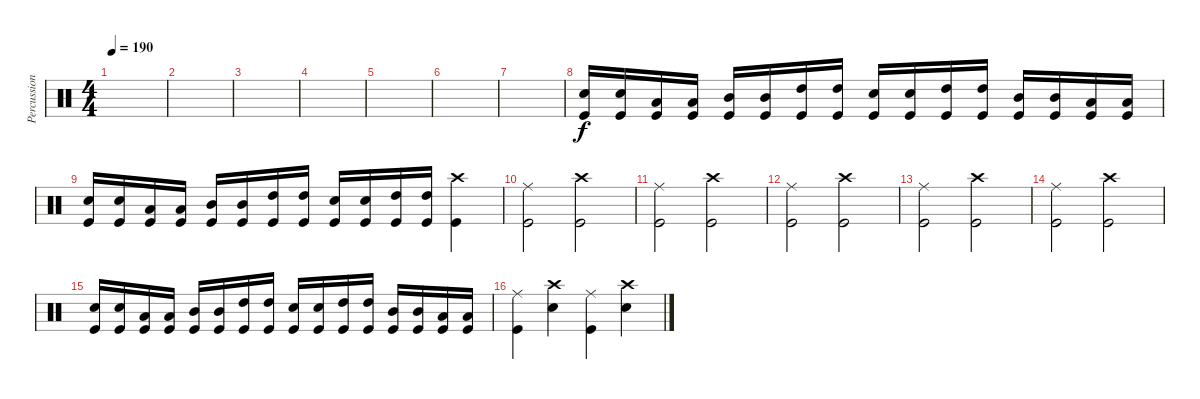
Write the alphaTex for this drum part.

\track ("Percussioni" "Percussion") {instrument percussion}
\staff {score}
\articulation defaults
\ts (4 4)
\tempo 190
\clef neutral
\ks c
|
|
|
|
|
|
|
("Electric Snare (hit)" "Kick (hit)").16 ("Electric Snare (hit)" "Kick (hit)").16 ("Low Tom (hit)" "Kick (hit)").16 ("Low Tom (hit)" "Kick (hit)").16 ("Mid Tom (hit)" "Kick (hit)").16 ("Mid Tom (hit)" "Kick (hit)").16 ("High Tom (hit)" "Kick (hit)").16 ("High Tom (hit)" "Kick (hit)").16 ("Electric Snare (hit)" "Kick (hit)").16 ("Electric Snare (hit)" "Kick (hit)").16 ("High Tom (hit)" "Kick (hit)").16 ("High Tom (hit)" "Kick (hit)").16 ("Mid Tom (hit)" "Kick (hit)").16 ("Mid Tom (hit)" "Kick (hit)").16 ("Low Tom (hit)" "Kick (hit)").16 ("Low Tom (hit)" "Kick (hit)").16 |
("Electric Snare (hit)" "Kick (hit)").16 ("Electric Snare (hit)" "Kick (hit)").16 ("Low Tom (hit)" "Kick (hit)").16 ("Low Tom (hit)" "Kick (hit)").16 ("Mid Tom (hit)" "Kick (hit)").16 ("Mid Tom (hit)" "Kick (hit)").16 ("High Tom (hit)" "Kick (hit)").16 ("High Tom (hit)" "Kick (hit)").16 ("Electric Snare (hit)" "Kick (hit)").16 ("Electric Snare (hit)" "Kick (hit)").16 ("High Tom (hit)" "Kick (hit)").16 ("High Tom (hit)" "Kick (hit)").16 ("Crash high (hit)" "Kick (hit)").4 |
("Ride (middle)" "Kick (hit)").2 ("Crash high (hit)" "Kick (hit)").2 |
("Ride (middle)" "Kick (hit)").2 ("Crash high (hit)" "Kick (hit)").2 |
("Ride (middle)" "Kick (hit)").2 ("Crash high (hit)" "Kick (hit)").2 |
("Ride (middle)" "Kick (hit)").2 ("Crash high (hit)" "Kick (hit)").2 |
("Ride (middle)" "Kick (hit)").2 ("Crash high (hit)" "Kick (hit)").2 |
("Electric Snare (hit)" "Kick (hit)").16 ("Electric Snare (hit)" "Kick (hit)").16 ("Low Tom (hit)" "Kick (hit)").16 ("Low Tom (hit)" "Kick (hit)").16 ("Mid Tom (hit)" "Kick (hit)").16 ("Mid Tom (hit)" "Kick (hit)").16 ("High Tom (hit)" "Kick (hit)").16 ("High Tom (hit)" "Kick (hit)").16 ("Electric Snare (hit)" "Kick (hit)").16 ("Electric Snare (hit)" "Kick (hit)").16 ("High Tom (hit)" "Kick (hit)").16 ("High Tom (hit)" "Kick (hit)").16 ("Mid Tom (hit)" "Kick (hit)").16 ("Mid Tom (hit)" "Kick (hit)").16 ("Low Tom (hit)" "Kick (hit)").16 ("Low Tom (hit)" "Kick (hit)").16 |
("Ride (middle)" "Kick (hit)").4 ("Crash high (hit)" "Electric Snare (hit)").4 ("Ride (middle)" "Kick (hit)").4 ("Crash high (hit)" "Electric Snare (hit)").4
